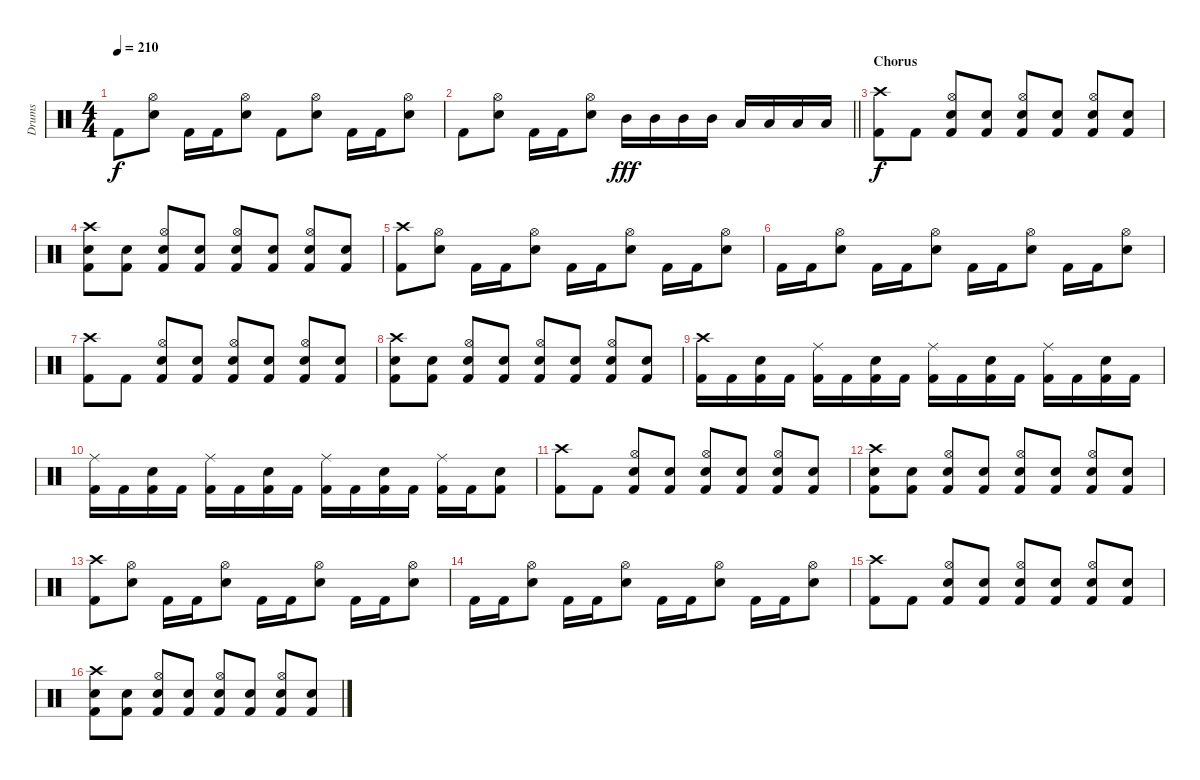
\track ("Drums" "Drums") {instrument percussion}
\staff {score}
\articulation defaults
\ts (4 4)
\tempo 210
\clef neutral
\ks c "Kick (hit) 2".8{dy f}
("Hi-Hat (open)" "Snare (hit) 2").8 "Kick (hit) 2".16 "Kick (hit) 2".16 ("Hi-Hat (open)" "Snare (hit) 2").8 "Kick (hit) 2".8 ("Hi-Hat (open)" "Snare (hit) 2").8 "Kick (hit) 2".16 "Kick (hit) 2".16 ("Hi-Hat (open)" "Snare (hit) 2").8 |
\barLineRight lightlight "Kick (hit) 2".8
("Hi-Hat (open)" "Snare (hit) 2").8 "Kick (hit) 2".16 "Kick (hit) 2".16 ("Hi-Hat (open)" "Snare (hit) 2").8 "Mid Tom (hit)".16{dy fff} "Mid Tom (hit)".16 "Mid Tom (hit)".16 "Mid Tom (hit)".16 "Low Tom (hit)".16 "Low Tom (hit)".16 "Low Tom (hit)".16 "Low Tom (hit)".16 |
\section ("" "Chorus")
("Crash high (hit)" "Kick (hit) 2").8{dy f} "Kick (hit) 2".8 ("Hi-Hat (open)" "Snare (hit) 2" "Kick (hit) 2").8 ("Snare (hit) 2" "Kick (hit) 2").8 ("Hi-Hat (open)" "Snare (hit) 2" "Kick (hit) 2").8 ("Snare (hit) 2" "Kick (hit) 2").8 ("Hi-Hat (open)" "Snare (hit) 2" "Kick (hit) 2").8 ("Snare (hit) 2" "Kick (hit) 2").8 |
("Crash high (hit)" "Snare (hit) 2" "Kick (hit) 2").8 ("Snare (hit) 2" "Kick (hit) 2").8 ("Hi-Hat (open)" "Snare (hit) 2" "Kick (hit) 2").8 ("Snare (hit) 2" "Kick (hit) 2").8 ("Hi-Hat (open)" "Snare (hit) 2" "Kick (hit) 2").8 ("Snare (hit) 2" "Kick (hit) 2").8 ("Hi-Hat (open)" "Snare (hit) 2" "Kick (hit) 2").8 ("Snare (hit) 2" "Kick (hit) 2").8 |
("Crash high (hit)" "Kick (hit) 2").8 ("Hi-Hat (open)" "Snare (hit) 2").8 "Kick (hit) 2".16 "Kick (hit) 2".16 ("Hi-Hat (open)" "Snare (hit) 2").8 "Kick (hit) 2".16 "Kick (hit) 2".16 ("Hi-Hat (open)" "Snare (hit) 2").8 "Kick (hit) 2".16 "Kick (hit) 2".16 ("Hi-Hat (open)" "Snare (hit) 2").8 |
"Kick (hit) 2".16 "Kick (hit) 2".16 ("Hi-Hat (open)" "Snare (hit) 2").8 "Kick (hit) 2".16 "Kick (hit) 2".16 ("Hi-Hat (open)" "Snare (hit) 2").8 "Kick (hit) 2".16 "Kick (hit) 2".16 ("Hi-Hat (open)" "Snare (hit) 2").8 "Kick (hit) 2".16 "Kick (hit) 2".16 ("Hi-Hat (open)" "Snare (hit) 2").8 |
("Crash high (hit)" "Kick (hit) 2").8 "Kick (hit) 2".8 ("Hi-Hat (open)" "Snare (hit) 2" "Kick (hit) 2").8 ("Snare (hit) 2" "Kick (hit) 2").8 ("Hi-Hat (open)" "Snare (hit) 2" "Kick (hit) 2").8 ("Snare (hit) 2" "Kick (hit) 2").8 ("Hi-Hat (open)" "Snare (hit) 2" "Kick (hit) 2").8 ("Snare (hit) 2" "Kick (hit) 2").8 |
("Crash high (hit)" "Snare (hit) 2" "Kick (hit) 2").8 ("Snare (hit) 2" "Kick (hit) 2").8 ("Hi-Hat (open)" "Snare (hit) 2" "Kick (hit) 2").8 ("Snare (hit) 2" "Kick (hit) 2").8 ("Hi-Hat (open)" "Snare (hit) 2" "Kick (hit) 2").8 ("Snare (hit) 2" "Kick (hit) 2").8 ("Hi-Hat (open)" "Snare (hit) 2" "Kick (hit) 2").8 ("Snare (hit) 2" "Kick (hit) 2").8 |
("Crash high (hit)" "Kick (hit) 2").16 "Kick (hit) 2".16 ("Snare (hit) 2" "Kick (hit) 2").16 "Kick (hit) 2".16 ("Ride (middle)" "Kick (hit) 2").16 "Kick (hit) 2".16 ("Snare (hit) 2" "Kick (hit) 2").16 "Kick (hit) 2".16 ("Ride (middle)" "Kick (hit) 2").16 "Kick (hit) 2".16 ("Snare (hit) 2" "Kick (hit) 2").16 "Kick (hit) 2".16 ("Ride (middle)" "Kick (hit) 2").16 "Kick (hit) 2".16 ("Snare (hit) 2" "Kick (hit) 2").16 "Kick (hit) 2".16 |
("Ride (middle)" "Kick (hit) 2").16 "Kick (hit) 2".16 ("Snare (hit) 2" "Kick (hit) 2").16 "Kick (hit) 2".16 ("Ride (middle)" "Kick (hit) 2").16 "Kick (hit) 2".16 ("Snare (hit) 2" "Kick (hit) 2").16 "Kick (hit) 2".16 ("Ride (middle)" "Kick (hit) 2").16 "Kick (hit) 2".16 ("Snare (hit) 2" "Kick (hit) 2").16 "Kick (hit) 2".16 ("Ride (middle)" "Kick (hit) 2").16 "Kick (hit) 2".16 ("Snare (hit) 2" "Kick (hit) 2").8 |
("Crash high (hit)" "Kick (hit) 2").8 "Kick (hit) 2".8 ("Hi-Hat (open)" "Snare (hit) 2" "Kick (hit) 2").8 ("Snare (hit) 2" "Kick (hit) 2").8 ("Hi-Hat (open)" "Snare (hit) 2" "Kick (hit) 2").8 ("Snare (hit) 2" "Kick (hit) 2").8 ("Hi-Hat (open)" "Snare (hit) 2" "Kick (hit) 2").8 ("Snare (hit) 2" "Kick (hit) 2").8 |
("Crash high (hit)" "Snare (hit) 2" "Kick (hit) 2").8 ("Snare (hit) 2" "Kick (hit) 2").8 ("Hi-Hat (open)" "Snare (hit) 2" "Kick (hit) 2").8 ("Snare (hit) 2" "Kick (hit) 2").8 ("Hi-Hat (open)" "Snare (hit) 2" "Kick (hit) 2").8 ("Snare (hit) 2" "Kick (hit) 2").8 ("Hi-Hat (open)" "Snare (hit) 2" "Kick (hit) 2").8 ("Snare (hit) 2" "Kick (hit) 2").8 |
("Crash high (hit)" "Kick (hit) 2").8 ("Hi-Hat (open)" "Snare (hit) 2").8 "Kick (hit) 2".16 "Kick (hit) 2".16 ("Hi-Hat (open)" "Snare (hit) 2").8 "Kick (hit) 2".16 "Kick (hit) 2".16 ("Hi-Hat (open)" "Snare (hit) 2").8 "Kick (hit) 2".16 "Kick (hit) 2".16 ("Hi-Hat (open)" "Snare (hit) 2").8 |
"Kick (hit) 2".16 "Kick (hit) 2".16 ("Hi-Hat (open)" "Snare (hit) 2").8 "Kick (hit) 2".16 "Kick (hit) 2".16 ("Hi-Hat (open)" "Snare (hit) 2").8 "Kick (hit) 2".16 "Kick (hit) 2".16 ("Hi-Hat (open)" "Snare (hit) 2").8 "Kick (hit) 2".16 "Kick (hit) 2".16 ("Hi-Hat (open)" "Snare (hit) 2").8 |
("Crash high (hit)" "Kick (hit) 2").8 "Kick (hit) 2".8 ("Hi-Hat (open)" "Snare (hit) 2" "Kick (hit) 2").8 ("Snare (hit) 2" "Kick (hit) 2").8 ("Hi-Hat (open)" "Snare (hit) 2" "Kick (hit) 2").8 ("Snare (hit) 2" "Kick (hit) 2").8 ("Hi-Hat (open)" "Snare (hit) 2" "Kick (hit) 2").8 ("Snare (hit) 2" "Kick (hit) 2").8 |
("Crash high (hit)" "Snare (hit) 2" "Kick (hit) 2").8 ("Snare (hit) 2" "Kick (hit) 2").8 ("Hi-Hat (open)" "Snare (hit) 2" "Kick (hit) 2").8 ("Snare (hit) 2" "Kick (hit) 2").8 ("Hi-Hat (open)" "Snare (hit) 2" "Kick (hit) 2").8 ("Snare (hit) 2" "Kick (hit) 2").8 ("Hi-Hat (open)" "Snare (hit) 2" "Kick (hit) 2").8 ("Snare (hit) 2" "Kick (hit) 2").8
